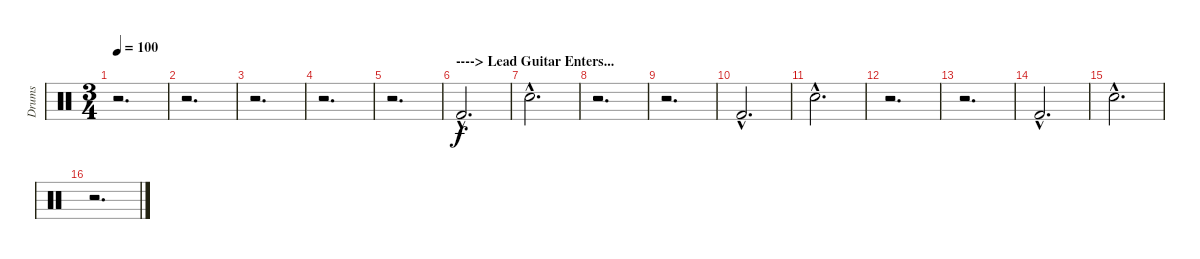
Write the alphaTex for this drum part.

\track ("Drums" "Drums") {instrument percussion}
\staff {score}
\articulation defaults
\ts (3 4)
\tempo 100
\clef neutral
\ks c
r.2{d dy f} |
r.2{d} |
r.2{d} |
r.2{d} |
r.2{d} |
\section ("" "----> Lead Guitar Enters...")
"Kick (hit) 2"{hac}.2{d} |
"Electric Snare (hit)"{hac}.2{d} |
r.2{d} |
r.2{d} |
"Kick (hit) 2"{hac}.2{d} |
"Electric Snare (hit)"{hac}.2{d} |
r.2{d} |
r.2{d} |
"Kick (hit) 2"{hac}.2{d} |
"Electric Snare (hit)"{hac}.2{d} |
r.2{d}
